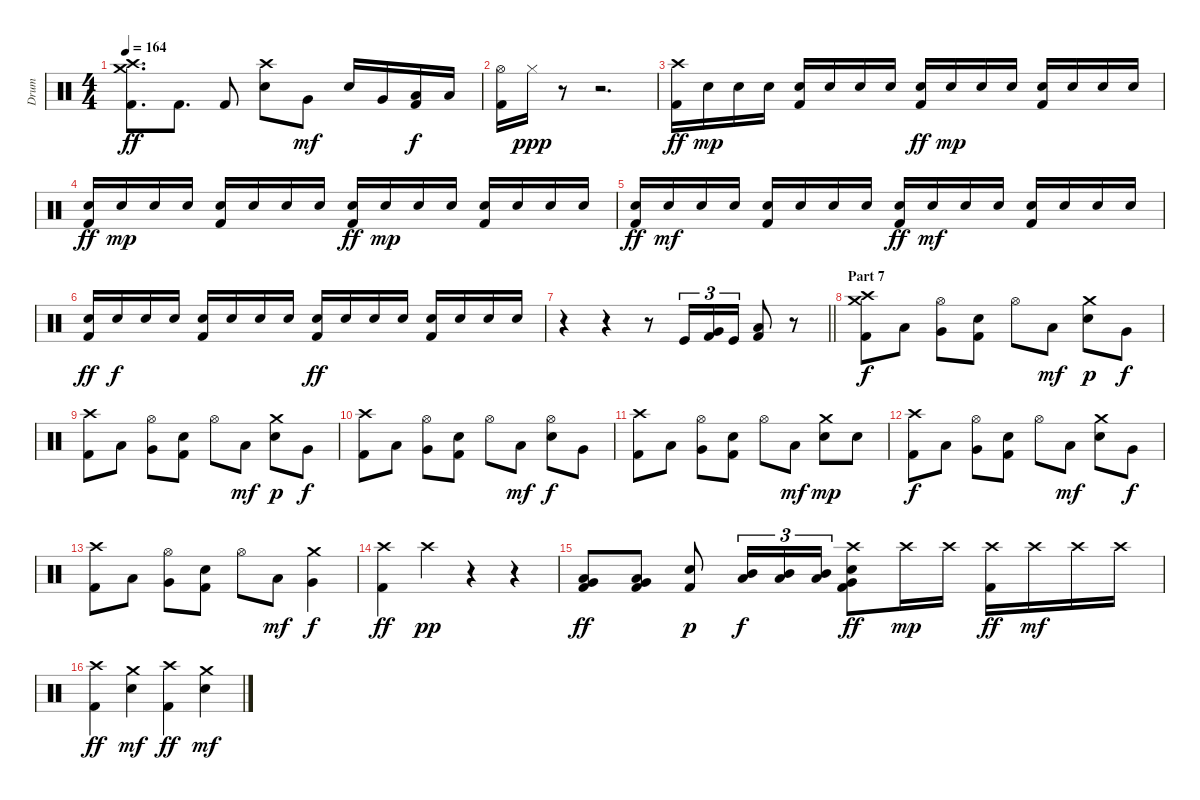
\track ("Drum" "Drum") {instrument percussion}
\staff {score}
\articulation defaults
\ts (4 4)
\tempo 164
\clef neutral
\ks c
("Crash high (hit)" "Crash medium (hit)" "Kick (hit) 2").8{d dy ff} "Kick (hit) 2".8{d} "Kick (hit) 2".8 ("Crash high (hit)" "Electric Snare (hit)").8 "Very Low Tom (hit)".8{dy mf} "Electric Snare (hit)".16 "Very Low Tom (hit)".16 ("Low Tom (hit)" "Kick (hit) 2").16{dy f} "Low Tom (hit)".16 |
("Hi-Hat (open)" "Kick (hit) 2").16 "Hi-Hat (closed)".16{dy ppp} r.8 r.2{d} |
("Crash high (hit)" "Kick (hit) 2").16{dy ff} "Electric Snare (hit)".16{dy mp} "Electric Snare (hit)".16 "Electric Snare (hit)".16 ("Electric Snare (hit)" "Kick (hit) 2").16 "Electric Snare (hit)".16 "Electric Snare (hit)".16 "Electric Snare (hit)".16 ("Electric Snare (hit)" "Kick (hit) 2").16{dy ff} "Electric Snare (hit)".16{dy mp} "Electric Snare (hit)".16 "Electric Snare (hit)".16 ("Electric Snare (hit)" "Kick (hit) 2").16 "Electric Snare (hit)".16 "Electric Snare (hit)".16 "Electric Snare (hit)".16 |
("Electric Snare (hit)" "Kick (hit) 2").16{dy ff} "Electric Snare (hit)".16{dy mp} "Electric Snare (hit)".16 "Electric Snare (hit)".16 ("Electric Snare (hit)" "Kick (hit) 2").16 "Electric Snare (hit)".16 "Electric Snare (hit)".16 "Electric Snare (hit)".16 ("Electric Snare (hit)" "Kick (hit) 2").16{dy ff} "Electric Snare (hit)".16{dy mp} "Electric Snare (hit)".16 "Electric Snare (hit)".16 ("Electric Snare (hit)" "Kick (hit) 2").16 "Electric Snare (hit)".16 "Electric Snare (hit)".16 "Electric Snare (hit)".16 |
("Electric Snare (hit)" "Kick (hit) 2").16{dy ff} "Electric Snare (hit)".16{dy mf} "Electric Snare (hit)".16 "Electric Snare (hit)".16 ("Electric Snare (hit)" "Kick (hit) 2").16 "Electric Snare (hit)".16 "Electric Snare (hit)".16 "Electric Snare (hit)".16 ("Electric Snare (hit)" "Kick (hit) 2").16{dy ff} "Electric Snare (hit)".16{dy mf} "Electric Snare (hit)".16 "Electric Snare (hit)".16 ("Electric Snare (hit)" "Kick (hit) 2").16 "Electric Snare (hit)".16 "Electric Snare (hit)".16 "Electric Snare (hit)".16 |
("Electric Snare (hit)" "Kick (hit) 2").16{dy ff} "Electric Snare (hit)".16{dy f} "Electric Snare (hit)".16 "Electric Snare (hit)".16 ("Electric Snare (hit)" "Kick (hit) 2").16 "Electric Snare (hit)".16 "Electric Snare (hit)".16 "Electric Snare (hit)".16 ("Electric Snare (hit)" "Kick (hit) 2").16{dy ff} "Electric Snare (hit)".16 "Electric Snare (hit)".16 "Electric Snare (hit)".16 ("Electric Snare (hit)" "Kick (hit) 2").16 "Electric Snare (hit)".16 "Electric Snare (hit)".16 "Electric Snare (hit)".16 |
\barLineRight lightlight
r.4 r.4 r.8 "Kick (hit)".16{tu (3 2)} ("Very Low Tom (hit)" "Kick (hit) 2").16{tu (3 2)} "Kick (hit)".16{tu (3 2)} ("Low Tom (hit)" "Kick (hit) 2").8 r.8 |
\section ("" "Part 7")
("Crash high (hit)" "Crash medium (hit)" "Kick (hit) 2").8{dy f} "Low Tom (hit)".8 ("Hi-Hat (open)" "Very Low Tom (hit)").8 ("Electric Snare (hit)" "Kick (hit) 2").8 "Hi-Hat (open)".8 "Low Tom (hit)".8{dy mf} ("Crash medium (hit)" "Electric Snare (hit)").8{dy p} "Very Low Tom (hit)".8{dy f} |
("Crash high (hit)" "Kick (hit) 2").8 "Low Tom (hit)".8 ("Hi-Hat (open)" "Very Low Tom (hit)").8 ("Electric Snare (hit)" "Kick (hit) 2").8 "Hi-Hat (open)".8 "Low Tom (hit)".8{dy mf} ("Crash medium (hit)" "Electric Snare (hit)").8{dy p} "Very Low Tom (hit)".8{dy f} |
("Crash high (hit)" "Kick (hit) 2").8 "Low Tom (hit)".8 ("Hi-Hat (open)" "Very Low Tom (hit)").8 ("Electric Snare (hit)" "Kick (hit) 2").8 "Hi-Hat (open)".8 "Low Tom (hit)".8{dy mf} ("Hi-Hat (open)" "Electric Snare (hit)").8{dy f} "Very Low Tom (hit)".8 |
("Crash high (hit)" "Kick (hit) 2").8 "Low Tom (hit)".8 ("Hi-Hat (open)" "Very Low Tom (hit)").8 ("Electric Snare (hit)" "Kick (hit) 2").8 "Hi-Hat (open)".8 "Low Tom (hit)".8{dy mf} ("Crash medium (hit)" "Electric Snare (hit)").8{dy mp} "Electric Snare (hit)".8 |
("Crash high (hit)" "Kick (hit) 2").8{dy f} "Low Tom (hit)".8 ("Hi-Hat (open)" "Very Low Tom (hit)").8 ("Electric Snare (hit)" "Kick (hit) 2").8 "Hi-Hat (open)".8 "Low Tom (hit)".8{dy mf} ("Crash medium (hit)" "Electric Snare (hit)").8 "Very Low Tom (hit)".8{dy f} |
("Crash high (hit)" "Kick (hit) 2").8 "Low Tom (hit)".8 ("Hi-Hat (open)" "Very Low Tom (hit)").8 ("Electric Snare (hit)" "Kick (hit) 2").8 "Hi-Hat (open)".8 "Low Tom (hit)".8{dy mf} ("Crash medium (hit)" "Very Low Tom (hit)").4{dy f} |
("Crash high (hit)" "Kick (hit) 2").4{dy ff} "Crash high (hit)".4{dy pp} r.4 r.4 |
("Low Tom (hit)" "Very Low Tom (hit)" "Kick (hit) 2").8{dy ff} ("Low Tom (hit)" "Very Low Tom (hit)" "Kick (hit) 2").8 ("Electric Snare (hit)" "Kick (hit) 2").8{dy p} ("Mid Tom (hit)" "Low Tom (hit)").16{tu (3 2) dy f} ("Mid Tom (hit)" "Low Tom (hit)").16{tu (3 2)} ("Mid Tom (hit)" "Low Tom (hit)").16{tu (3 2)} ("Crash high (hit)" "Electric Snare (hit)" "Very Low Tom (hit)" "Kick (hit) 2").8{dy ff} "Crash high (hit)".16{dy mp} "Crash high (hit)".16 ("Crash high (hit)" "Kick (hit) 2").16{dy ff} "Crash high (hit)".16{dy mf} "Crash high (hit)".16 "Crash high (hit)".16 |
("Crash high (hit)" "Kick (hit) 2").4{dy ff} ("Crash medium (hit)" "Electric Snare (hit)").4{dy mf} ("Crash high (hit)" "Kick (hit) 2").4{dy ff} ("Crash medium (hit)" "Electric Snare (hit)").4{dy mf}
